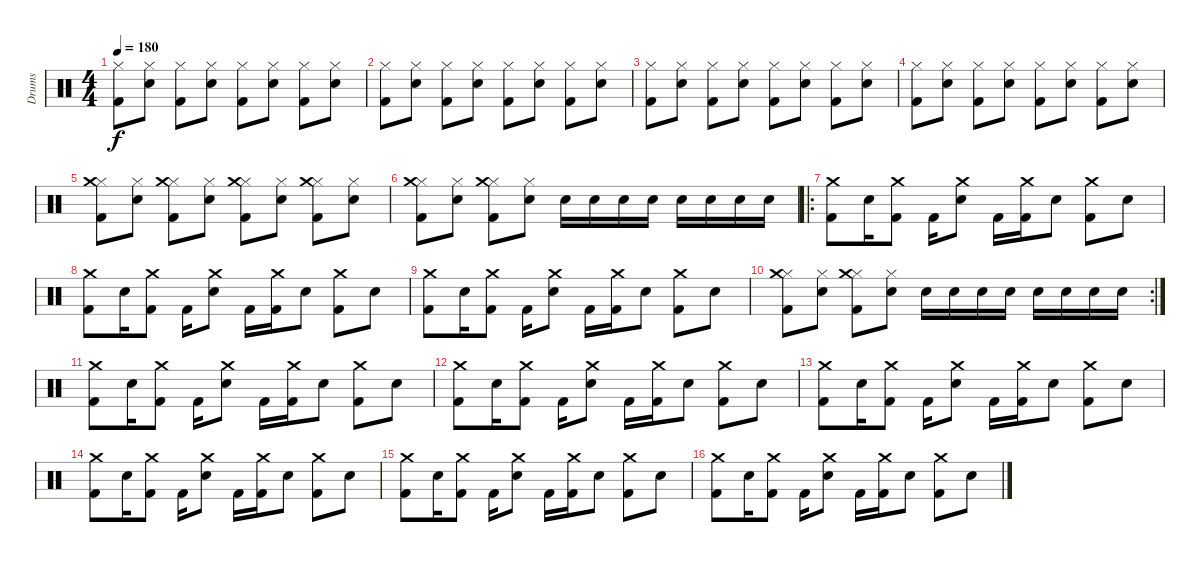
\track ("Drums" "Drums") {instrument percussion}
\staff {score}
\articulation defaults
\ts (4 4)
\tempo 180
\clef neutral
\ks c
("Hi-Hat (closed)" "Kick (hit) 2").8{dy f} ("Hi-Hat (closed)" "Snare (hit) 2").8 ("Hi-Hat (closed)" "Kick (hit) 2").8 ("Hi-Hat (closed)" "Snare (hit) 2").8 ("Hi-Hat (closed)" "Kick (hit) 2").8 ("Hi-Hat (closed)" "Snare (hit) 2").8 ("Hi-Hat (closed)" "Kick (hit) 2").8 ("Hi-Hat (closed)" "Snare (hit) 2").8 |
("Hi-Hat (closed)" "Kick (hit) 2").8 ("Hi-Hat (closed)" "Snare (hit) 2").8 ("Hi-Hat (closed)" "Kick (hit) 2").8 ("Hi-Hat (closed)" "Snare (hit) 2").8 ("Hi-Hat (closed)" "Kick (hit) 2").8 ("Hi-Hat (closed)" "Snare (hit) 2").8 ("Hi-Hat (closed)" "Kick (hit) 2").8 ("Hi-Hat (closed)" "Snare (hit) 2").8 |
("Hi-Hat (closed)" "Kick (hit) 2").8 ("Hi-Hat (closed)" "Snare (hit) 2").8 ("Hi-Hat (closed)" "Kick (hit) 2").8 ("Hi-Hat (closed)" "Snare (hit) 2").8 ("Hi-Hat (closed)" "Kick (hit) 2").8 ("Hi-Hat (closed)" "Snare (hit) 2").8 ("Hi-Hat (closed)" "Kick (hit) 2").8 ("Hi-Hat (closed)" "Snare (hit) 2").8 |
("Hi-Hat (closed)" "Kick (hit) 2").8 ("Hi-Hat (closed)" "Snare (hit) 2").8 ("Hi-Hat (closed)" "Kick (hit) 2").8 ("Hi-Hat (closed)" "Snare (hit) 2").8 ("Hi-Hat (closed)" "Kick (hit) 2").8 ("Hi-Hat (closed)" "Snare (hit) 2").8 ("Hi-Hat (closed)" "Kick (hit) 2").8 ("Hi-Hat (closed)" "Snare (hit) 2").8 |
("Hi-Hat (closed)" "Crash medium (hit)" "Kick (hit) 2").8 ("Hi-Hat (closed)" "Snare (hit) 2").8 ("Hi-Hat (closed)" "Crash medium (hit)" "Kick (hit) 2").8 ("Hi-Hat (closed)" "Snare (hit) 2").8 ("Hi-Hat (closed)" "Crash medium (hit)" "Kick (hit) 2").8 ("Hi-Hat (closed)" "Snare (hit) 2").8 ("Hi-Hat (closed)" "Crash medium (hit)" "Kick (hit) 2").8 ("Hi-Hat (closed)" "Snare (hit) 2").8 |
("Hi-Hat (closed)" "Crash medium (hit)" "Kick (hit) 2").8 ("Hi-Hat (closed)" "Snare (hit) 2").8 ("Hi-Hat (closed)" "Crash medium (hit)" "Kick (hit) 2").8 ("Hi-Hat (closed)" "Snare (hit) 2").8 "Snare (hit) 2".16 "Snare (hit) 2".16 "Snare (hit) 2".16 "Snare (hit) 2".16 "Snare (hit) 2".16 "Snare (hit) 2".16 "Snare (hit) 2".16 "Snare (hit) 2".16 |
\ro
("Kick (hit) 2" "Crash medium (hit)").8 "Snare (hit) 2".16 ("Crash medium (hit)" "Kick (hit) 2").8 "Kick (hit) 2".16 ("Crash medium (hit)" "Snare (hit) 2").8 "Kick (hit) 2".16 ("Crash medium (hit)" "Kick (hit) 2").16 "Snare (hit) 2".8 ("Crash medium (hit)" "Kick (hit) 2").8 "Snare (hit) 2".8 |
("Kick (hit) 2" "Crash medium (hit)").8 "Snare (hit) 2".16 ("Crash medium (hit)" "Kick (hit) 2").8 "Kick (hit) 2".16 ("Crash medium (hit)" "Snare (hit) 2").8 "Kick (hit) 2".16 ("Crash medium (hit)" "Kick (hit) 2").16 "Snare (hit) 2".8 ("Crash medium (hit)" "Kick (hit) 2").8 "Snare (hit) 2".8 |
("Kick (hit) 2" "Crash medium (hit)").8 "Snare (hit) 2".16 ("Crash medium (hit)" "Kick (hit) 2").8 "Kick (hit) 2".16 ("Crash medium (hit)" "Snare (hit) 2").8 "Kick (hit) 2".16 ("Crash medium (hit)" "Kick (hit) 2").16 "Snare (hit) 2".8 ("Crash medium (hit)" "Kick (hit) 2").8 "Snare (hit) 2".8 |
\rc 2
("Hi-Hat (closed)" "Crash medium (hit)" "Kick (hit) 2").8 ("Hi-Hat (closed)" "Snare (hit) 2").8 ("Hi-Hat (closed)" "Crash medium (hit)" "Kick (hit) 2").8 ("Hi-Hat (closed)" "Snare (hit) 2").8 "Snare (hit) 2".16 "Snare (hit) 2".16 "Snare (hit) 2".16 "Snare (hit) 2".16 "Snare (hit) 2".16 "Snare (hit) 2".16 "Snare (hit) 2".16 "Snare (hit) 2".16 |
("Kick (hit) 2" "Crash medium (hit)").8 "Snare (hit) 2".16 ("Crash medium (hit)" "Kick (hit) 2").8 "Kick (hit) 2".16 ("Crash medium (hit)" "Snare (hit) 2").8 "Kick (hit) 2".16 ("Crash medium (hit)" "Kick (hit) 2").16 "Snare (hit) 2".8 ("Crash medium (hit)" "Kick (hit) 2").8 "Snare (hit) 2".8 |
("Kick (hit) 2" "Crash medium (hit)").8 "Snare (hit) 2".16 ("Crash medium (hit)" "Kick (hit) 2").8 "Kick (hit) 2".16 ("Crash medium (hit)" "Snare (hit) 2").8 "Kick (hit) 2".16 ("Crash medium (hit)" "Kick (hit) 2").16 "Snare (hit) 2".8 ("Crash medium (hit)" "Kick (hit) 2").8 "Snare (hit) 2".8 |
("Kick (hit) 2" "Crash medium (hit)").8 "Snare (hit) 2".16 ("Crash medium (hit)" "Kick (hit) 2").8 "Kick (hit) 2".16 ("Crash medium (hit)" "Snare (hit) 2").8 "Kick (hit) 2".16 ("Crash medium (hit)" "Kick (hit) 2").16 "Snare (hit) 2".8 ("Crash medium (hit)" "Kick (hit) 2").8 "Snare (hit) 2".8 |
("Kick (hit) 2" "Crash medium (hit)").8 "Snare (hit) 2".16 ("Crash medium (hit)" "Kick (hit) 2").8 "Kick (hit) 2".16 ("Crash medium (hit)" "Snare (hit) 2").8 "Kick (hit) 2".16 ("Crash medium (hit)" "Kick (hit) 2").16 "Snare (hit) 2".8 ("Crash medium (hit)" "Kick (hit) 2").8 "Snare (hit) 2".8 |
("Kick (hit) 2" "Crash medium (hit)").8 "Snare (hit) 2".16 ("Crash medium (hit)" "Kick (hit) 2").8 "Kick (hit) 2".16 ("Crash medium (hit)" "Snare (hit) 2").8 "Kick (hit) 2".16 ("Crash medium (hit)" "Kick (hit) 2").16 "Snare (hit) 2".8 ("Crash medium (hit)" "Kick (hit) 2").8 "Snare (hit) 2".8 |
("Kick (hit) 2" "Crash medium (hit)").8 "Snare (hit) 2".16 ("Crash medium (hit)" "Kick (hit) 2").8 "Kick (hit) 2".16 ("Crash medium (hit)" "Snare (hit) 2").8 "Kick (hit) 2".16 ("Crash medium (hit)" "Kick (hit) 2").16 "Snare (hit) 2".8 ("Crash medium (hit)" "Kick (hit) 2").8 "Snare (hit) 2".8
